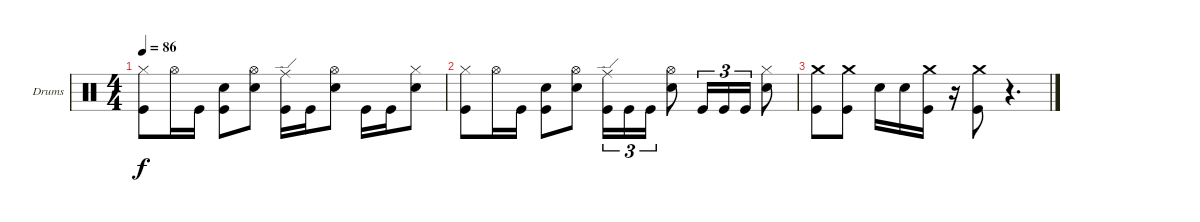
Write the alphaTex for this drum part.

\defaultSystemsLayout 4
\bracketExtendMode groupsimilarinstruments
\firstSystemTrackNameOrientation horizontal
\otherSystemsTrackNameOrientation horizontal
\track ("Drumkit" "Drums") {instrument percussion}
\staff {score}
\articulation defaults
\ts (4 4)
\tempo 86
\clef neutral
\scale
0.333333
\ks c
("Hi-Hat (closed)" "Kick (hit)").8{dy f} "Hi-Hat (open)".16 "Kick (hit)".16 ("Snare (hit) 2" "Kick (hit)").8 ("Hi-Hat (open)" "Snare (hit) 2").8 ("Ride (edge)" "Kick (hit)").16 "Kick (hit)".16 ("Hi-Hat (open)" "Snare (hit) 2").8 "Kick (hit)".16 "Kick (hit)".16 ("Hi-Hat (closed)" "Snare (hit) 2").8 |
\scale
0.333333 ("Hi-Hat (closed)" "Kick (hit)").8 "Hi-Hat (open)".16 "Kick (hit)".16 ("Snare (hit) 2" "Kick (hit)").8 ("Hi-Hat (open)" "Snare (hit) 2").8 ("Ride (edge)" "Kick (hit)").16{tu (3 2)} "Kick (hit)".16{tu (3 2)} "Kick (hit)".16{tu (3 2)} ("Hi-Hat (open)" "Snare (hit) 2").8 "Kick (hit)".16{tu (3 2)} "Kick (hit)".16{tu (3 2)} "Kick (hit)".16{tu (3 2)} ("Hi-Hat (closed)" "Snare (hit) 2").8 |
("Crash medium (hit)" "Kick (hit)").8 ("Crash medium (hit)" "Kick (hit)").8 "Snare (hit) 2".16 "Snare (hit) 2".16 ("Crash medium (hit)" "Kick (hit)").16 r.16 ("Crash medium (hit)" "Kick (hit)").8 r.4{d}
